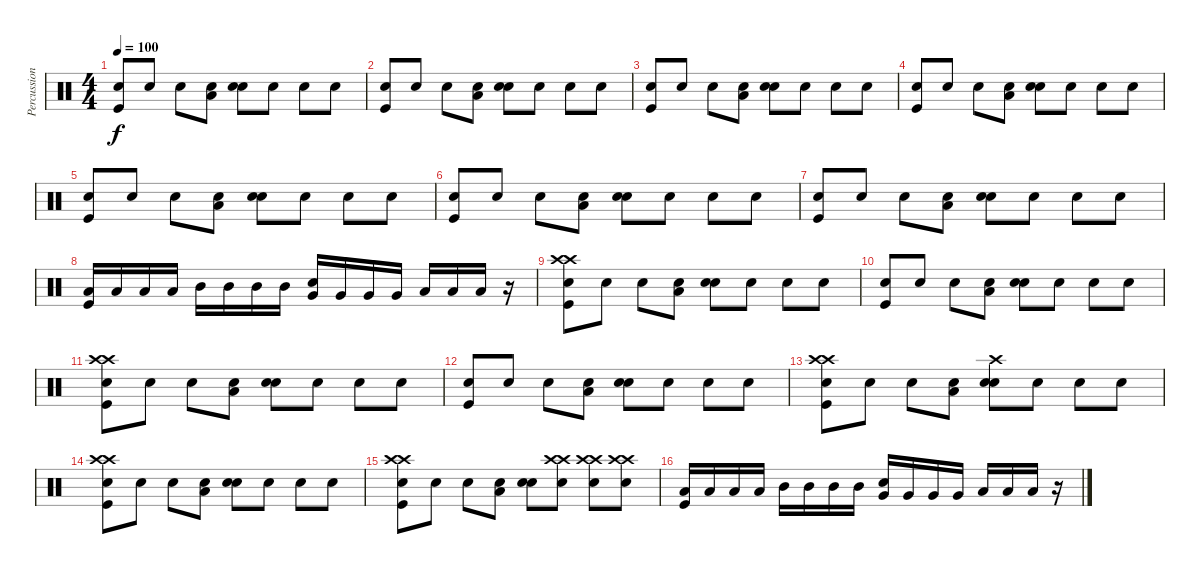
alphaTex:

\track ("Percussions" "Percussion") {instrument percussion}
\staff {score}
\articulation defaults
\ts (4 4)
\tempo 100
\clef neutral
\ks c
("Kick (hit)" "Snare (hit) 2").8{dy f} "Snare (hit) 2".8 "Snare (hit) 2".8 ("Low Tom (hit)" "Snare (hit) 2").8 ("Hand Clap (hit)" "Snare (hit) 2").8 "Snare (hit) 2".8 "Snare (hit) 2".8 "Snare (hit) 2".8 |
("Kick (hit)" "Snare (hit) 2").8 "Snare (hit) 2".8 "Snare (hit) 2".8 ("Low Tom (hit)" "Snare (hit) 2").8 ("Hand Clap (hit)" "Snare (hit) 2").8 "Snare (hit) 2".8 "Snare (hit) 2".8 "Snare (hit) 2".8 |
("Kick (hit)" "Snare (hit) 2").8 "Snare (hit) 2".8 "Snare (hit) 2".8 ("Low Tom (hit)" "Snare (hit) 2").8 ("Hand Clap (hit)" "Snare (hit) 2").8 "Snare (hit) 2".8 "Snare (hit) 2".8 "Snare (hit) 2".8 |
("Kick (hit)" "Snare (hit) 2").8 "Snare (hit) 2".8 "Snare (hit) 2".8 ("Low Tom (hit)" "Snare (hit) 2").8 ("Hand Clap (hit)" "Snare (hit) 2").8 "Snare (hit) 2".8 "Snare (hit) 2".8 "Snare (hit) 2".8 |
("Kick (hit)" "Snare (hit) 2").8 "Snare (hit) 2".8 "Snare (hit) 2".8 ("Low Tom (hit)" "Snare (hit) 2").8 ("Hand Clap (hit)" "Snare (hit) 2").8 "Snare (hit) 2".8 "Snare (hit) 2".8 "Snare (hit) 2".8 |
("Kick (hit)" "Snare (hit) 2").8 "Snare (hit) 2".8 "Snare (hit) 2".8 ("Low Tom (hit)" "Snare (hit) 2").8 ("Hand Clap (hit)" "Snare (hit) 2").8 "Snare (hit) 2".8 "Snare (hit) 2".8 "Snare (hit) 2".8 |
("Kick (hit)" "Snare (hit) 2").8 "Snare (hit) 2".8 "Snare (hit) 2".8 ("Low Tom (hit)" "Snare (hit) 2").8 ("Hand Clap (hit)" "Snare (hit) 2").8 "Snare (hit) 2".8 "Snare (hit) 2".8 "Snare (hit) 2".8 |
("Kick (hit)" "Low Tom (hit)").16 "Low Tom (hit)".16 "Low Tom (hit)".16 "Low Tom (hit)".16 "Mid Tom (hit)".16 "Mid Tom (hit)".16 "Mid Tom (hit)".16 "Mid Tom (hit)".16 ("Hand Clap (hit)" "Very Low Tom (hit)").16 "Very Low Tom (hit)".16 "Very Low Tom (hit)".16 "Very Low Tom (hit)".16 "Low Tom (hit)".16 "Low Tom (hit)".16 "Low Tom (hit)".16 r.16 |
("Crash high (hit)" "Crash high (hit)" "Kick (hit)" "Snare (hit) 2").8 "Snare (hit) 2".8 "Snare (hit) 2".8 ("Low Tom (hit)" "Snare (hit) 2").8 ("Hand Clap (hit)" "Snare (hit) 2").8 "Snare (hit) 2".8 "Snare (hit) 2".8 "Snare (hit) 2".8 |
("Kick (hit)" "Snare (hit) 2").8 "Snare (hit) 2".8 "Snare (hit) 2".8 ("Low Tom (hit)" "Snare (hit) 2").8 ("Hand Clap (hit)" "Snare (hit) 2").8 "Snare (hit) 2".8 "Snare (hit) 2".8 "Snare (hit) 2".8 |
("Crash high (hit)" "Crash high (hit)" "Kick (hit)" "Snare (hit) 2").8 "Snare (hit) 2".8 "Snare (hit) 2".8 ("Low Tom (hit)" "Snare (hit) 2").8 ("Hand Clap (hit)" "Snare (hit) 2").8 "Snare (hit) 2".8 "Snare (hit) 2".8 "Snare (hit) 2".8 |
("Kick (hit)" "Snare (hit) 2").8 "Snare (hit) 2".8 "Snare (hit) 2".8 ("Low Tom (hit)" "Snare (hit) 2").8 ("Hand Clap (hit)" "Snare (hit) 2").8 "Snare (hit) 2".8 "Snare (hit) 2".8 "Snare (hit) 2".8 |
("Crash high (hit)" "Crash high (hit)" "Kick (hit)" "Snare (hit) 2").8 "Snare (hit) 2".8 "Snare (hit) 2".8 ("Low Tom (hit)" "Snare (hit) 2").8 ("Hand Clap (hit)" "Crash high (hit)" "Snare (hit) 2").8 "Snare (hit) 2".8 "Snare (hit) 2".8 "Snare (hit) 2".8 |
("Crash high (hit)" "Crash high (hit)" "Kick (hit)" "Snare (hit) 2").8 "Snare (hit) 2".8 "Snare (hit) 2".8 ("Low Tom (hit)" "Snare (hit) 2").8 ("Hand Clap (hit)" "Snare (hit) 2").8 "Snare (hit) 2".8 "Snare (hit) 2".8 "Snare (hit) 2".8 |
("Crash high (hit)" "Crash high (hit)" "Kick (hit)" "Snare (hit) 2").8 "Snare (hit) 2".8 "Snare (hit) 2".8 ("Low Tom (hit)" "Snare (hit) 2").8 ("Hand Clap (hit)" "Snare (hit) 2").8 ("Crash high (hit)" "Crash high (hit)" "Snare (hit) 2").8 ("Crash high (hit)" "Crash high (hit)" "Snare (hit) 2").8 ("Crash high (hit)" "Crash high (hit)" "Snare (hit) 2").8 |
("Kick (hit)" "Low Tom (hit)").16 "Low Tom (hit)".16 "Low Tom (hit)".16 "Low Tom (hit)".16 "Mid Tom (hit)".16 "Mid Tom (hit)".16 "Mid Tom (hit)".16 "Mid Tom (hit)".16 ("Hand Clap (hit)" "Very Low Tom (hit)").16 "Very Low Tom (hit)".16 "Very Low Tom (hit)".16 "Very Low Tom (hit)".16 "Low Tom (hit)".16 "Low Tom (hit)".16 "Low Tom (hit)".16 r.16
